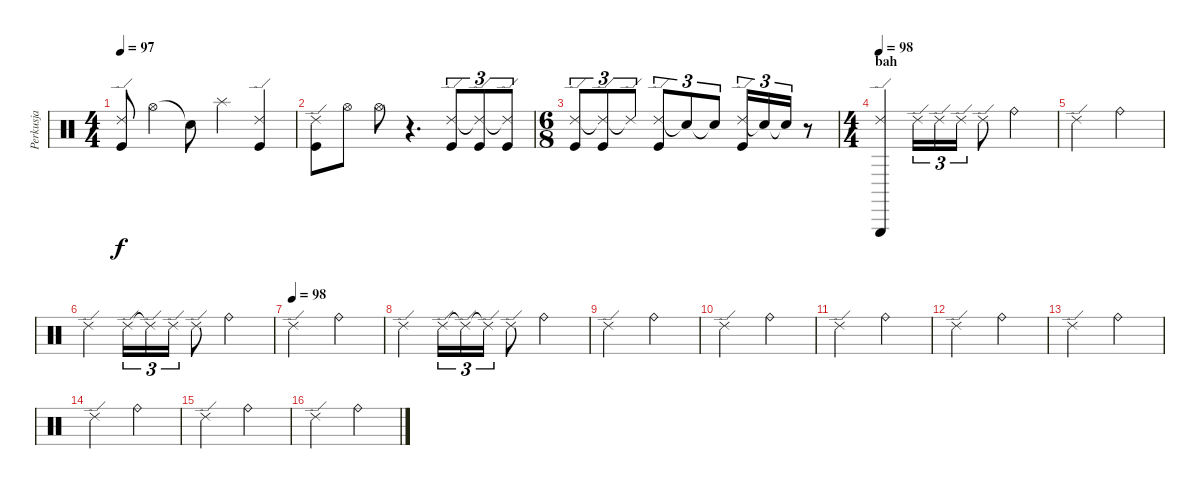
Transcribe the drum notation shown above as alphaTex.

\track ("Perkusja" "Perkusja") {instrument percussion}
\staff {score}
\articulation defaults
\ts (4 4)
\tempo 97
\clef neutral
\ks c
("Ride (edge) 2" "Kick (hit)").8{dy f} "Hi-Hat (open)".4 "Snare (hit)"{t}.8 "Splash (hit)".4 ("Ride (edge) 2" "Kick (hit)").4 |
("Ride (edge) 2" "Kick (hit)").8 "Hi-Hat (open)".8 "Hi-Hat (open)".8 r.4{d} ("Ride (edge) 2" "Kick (hit)").8{tu (3 2)} ("Ride (edge) 2"{t} "Kick (hit)").8{tu (3 2)} ("Ride (edge) 2"{t} "Kick (hit)").8{tu (3 2)} |
\ts (6 8)
("Ride (edge) 2" "Kick (hit)").8{tu (3 2)} ("Ride (edge) 2"{t} "Kick (hit)").8{tu (3 2)} "Ride (edge) 2"{t}.8{tu (3 2)} ("Ride (edge) 2" "Kick (hit)").8{tu (3 2)} "Snare (hit)"{t}.8{tu (3 2)} "Snare (hit)"{t}.8{tu (3 2)} ("Ride (edge) 2" "Kick (hit)").16{tu (3 2)} "Snare (hit)"{t}.16{tu (3 2)} "Snare (hit)"{t}.16{tu (3 2)} r.8 |
\ts (4 4)
\section ("" "bah")
\tempo 98
("Ride (edge) 2" "Triangle (hit)").4 "Ride (edge) 2".16{tu (3 2)} "Ride (edge) 2".16{tu (3 2)} "Ride (edge) 2".16{tu (3 2)} "Ride (edge) 2".8 "Ride (bell)".2 |
"Ride (edge) 2".2 "Ride (bell)".2 |
"Ride (edge) 2".4 "Ride (edge) 2".16{tu (3 2)} "Ride (edge) 2"{t}.16{tu (3 2)} "Ride (edge) 2".16{tu (3 2)} "Ride (edge) 2".8 "Ride (bell)".2 |
\tempo (98)
"Ride (edge) 2".2 "Ride (bell)".2 |
"Ride (edge) 2".4 "Ride (edge) 2".16{tu (3 2)} "Ride (edge) 2"{t}.16{tu (3 2)} "Ride (edge) 2"{t}.16{tu (3 2)} "Ride (edge) 2".8 "Ride (bell)".2 |
"Ride (edge) 2".2 "Ride (bell)".2 |
"Ride (edge) 2".2 "Ride (bell)".2 |
"Ride (edge) 2".2 "Ride (bell)".2 |
"Ride (edge) 2".2 "Ride (bell)".2 |
"Ride (edge) 2".2 "Ride (bell)".2 |
"Ride (edge) 2".2 "Ride (bell)".2 |
"Ride (edge) 2".2 "Ride (bell)".2 |
"Ride (edge) 2".2 "Ride (bell)".2
